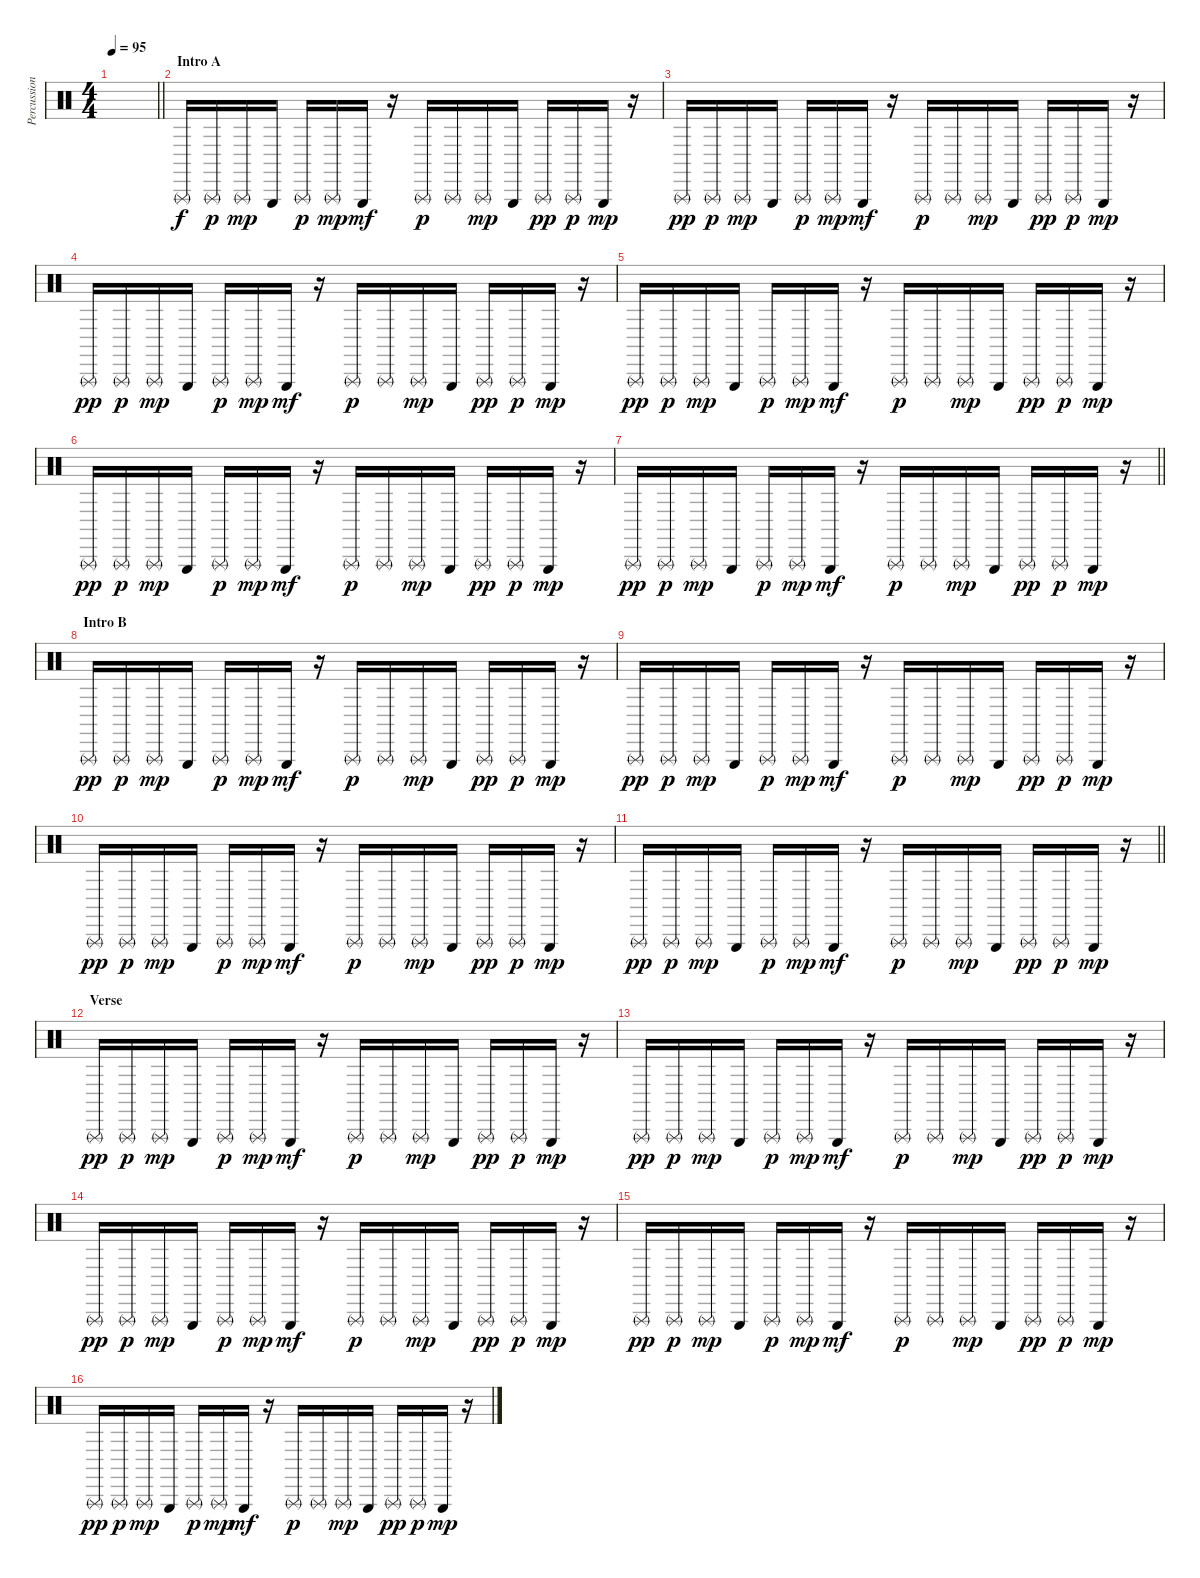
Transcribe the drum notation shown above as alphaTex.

\track ("Percussions" "Percussion") {instrument percussion}
\staff {score}
\articulation defaults
\ts (4 4)
\tempo 95
\clef neutral
\barLineRight lightlight
\ks c
|
\section ("" "Intro A")
"Triangle (rnute)".16 "Triangle (rnute)".16{dy p} "Triangle (rnute)".16{dy mp} "Triangle (hit)".16 "Triangle (rnute)".16{dy p} "Triangle (rnute)".16{dy mp} "Triangle (hit)".16{dy mf} r.16 "Triangle (rnute)".16{dy p} "Triangle (rnute)".16 "Triangle (rnute)".16{dy mp} "Triangle (hit)".16 "Triangle (rnute)".16{dy pp} "Triangle (rnute)".16{dy p} "Triangle (hit)".16{dy mp} r.16 |
"Triangle (rnute)".16{dy pp} "Triangle (rnute)".16{dy p} "Triangle (rnute)".16{dy mp} "Triangle (hit)".16 "Triangle (rnute)".16{dy p} "Triangle (rnute)".16{dy mp} "Triangle (hit)".16{dy mf} r.16 "Triangle (rnute)".16{dy p} "Triangle (rnute)".16 "Triangle (rnute)".16{dy mp} "Triangle (hit)".16 "Triangle (rnute)".16{dy pp} "Triangle (rnute)".16{dy p} "Triangle (hit)".16{dy mp} r.16 |
"Triangle (rnute)".16{dy pp} "Triangle (rnute)".16{dy p} "Triangle (rnute)".16{dy mp} "Triangle (hit)".16 "Triangle (rnute)".16{dy p} "Triangle (rnute)".16{dy mp} "Triangle (hit)".16{dy mf} r.16 "Triangle (rnute)".16{dy p} "Triangle (rnute)".16 "Triangle (rnute)".16{dy mp} "Triangle (hit)".16 "Triangle (rnute)".16{dy pp} "Triangle (rnute)".16{dy p} "Triangle (hit)".16{dy mp} r.16 |
"Triangle (rnute)".16{dy pp} "Triangle (rnute)".16{dy p} "Triangle (rnute)".16{dy mp} "Triangle (hit)".16 "Triangle (rnute)".16{dy p} "Triangle (rnute)".16{dy mp} "Triangle (hit)".16{dy mf} r.16 "Triangle (rnute)".16{dy p} "Triangle (rnute)".16 "Triangle (rnute)".16{dy mp} "Triangle (hit)".16 "Triangle (rnute)".16{dy pp} "Triangle (rnute)".16{dy p} "Triangle (hit)".16{dy mp} r.16 |
"Triangle (rnute)".16{dy pp} "Triangle (rnute)".16{dy p} "Triangle (rnute)".16{dy mp} "Triangle (hit)".16 "Triangle (rnute)".16{dy p} "Triangle (rnute)".16{dy mp} "Triangle (hit)".16{dy mf} r.16 "Triangle (rnute)".16{dy p} "Triangle (rnute)".16 "Triangle (rnute)".16{dy mp} "Triangle (hit)".16 "Triangle (rnute)".16{dy pp} "Triangle (rnute)".16{dy p} "Triangle (hit)".16{dy mp} r.16 |
\barLineRight lightlight "Triangle (rnute)".16{dy pp} "Triangle (rnute)".16{dy p} "Triangle (rnute)".16{dy mp} "Triangle (hit)".16 "Triangle (rnute)".16{dy p} "Triangle (rnute)".16{dy mp} "Triangle (hit)".16{dy mf}
r.16 "Triangle (rnute)".16{dy p} "Triangle (rnute)".16 "Triangle (rnute)".16{dy mp} "Triangle (hit)".16 "Triangle (rnute)".16{dy pp} "Triangle (rnute)".16{dy p} "Triangle (hit)".16{dy mp} r.16 |
\section ("" "Intro B")
"Triangle (rnute)".16{dy pp} "Triangle (rnute)".16{dy p} "Triangle (rnute)".16{dy mp} "Triangle (hit)".16 "Triangle (rnute)".16{dy p} "Triangle (rnute)".16{dy mp} "Triangle (hit)".16{dy mf} r.16 "Triangle (rnute)".16{dy p} "Triangle (rnute)".16 "Triangle (rnute)".16{dy mp} "Triangle (hit)".16 "Triangle (rnute)".16{dy pp} "Triangle (rnute)".16{dy p} "Triangle (hit)".16{dy mp} r.16 |
"Triangle (rnute)".16{dy pp} "Triangle (rnute)".16{dy p} "Triangle (rnute)".16{dy mp} "Triangle (hit)".16 "Triangle (rnute)".16{dy p} "Triangle (rnute)".16{dy mp} "Triangle (hit)".16{dy mf} r.16 "Triangle (rnute)".16{dy p} "Triangle (rnute)".16 "Triangle (rnute)".16{dy mp} "Triangle (hit)".16 "Triangle (rnute)".16{dy pp} "Triangle (rnute)".16{dy p} "Triangle (hit)".16{dy mp} r.16 |
"Triangle (rnute)".16{dy pp} "Triangle (rnute)".16{dy p} "Triangle (rnute)".16{dy mp} "Triangle (hit)".16 "Triangle (rnute)".16{dy p} "Triangle (rnute)".16{dy mp} "Triangle (hit)".16{dy mf} r.16 "Triangle (rnute)".16{dy p} "Triangle (rnute)".16 "Triangle (rnute)".16{dy mp} "Triangle (hit)".16 "Triangle (rnute)".16{dy pp} "Triangle (rnute)".16{dy p} "Triangle (hit)".16{dy mp} r.16 |
\barLineRight lightlight "Triangle (rnute)".16{dy pp} "Triangle (rnute)".16{dy p} "Triangle (rnute)".16{dy mp} "Triangle (hit)".16 "Triangle (rnute)".16{dy p} "Triangle (rnute)".16{dy mp} "Triangle (hit)".16{dy mf}
r.16 "Triangle (rnute)".16{dy p} "Triangle (rnute)".16 "Triangle (rnute)".16{dy mp} "Triangle (hit)".16 "Triangle (rnute)".16{dy pp} "Triangle (rnute)".16{dy p} "Triangle (hit)".16{dy mp} r.16 |
\section ("" "Verse")
"Triangle (rnute)".16{dy pp} "Triangle (rnute)".16{dy p} "Triangle (rnute)".16{dy mp} "Triangle (hit)".16 "Triangle (rnute)".16{dy p} "Triangle (rnute)".16{dy mp} "Triangle (hit)".16{dy mf} r.16 "Triangle (rnute)".16{dy p} "Triangle (rnute)".16 "Triangle (rnute)".16{dy mp} "Triangle (hit)".16 "Triangle (rnute)".16{dy pp} "Triangle (rnute)".16{dy p} "Triangle (hit)".16{dy mp} r.16 |
"Triangle (rnute)".16{dy pp} "Triangle (rnute)".16{dy p} "Triangle (rnute)".16{dy mp} "Triangle (hit)".16 "Triangle (rnute)".16{dy p} "Triangle (rnute)".16{dy mp} "Triangle (hit)".16{dy mf} r.16 "Triangle (rnute)".16{dy p} "Triangle (rnute)".16 "Triangle (rnute)".16{dy mp} "Triangle (hit)".16 "Triangle (rnute)".16{dy pp} "Triangle (rnute)".16{dy p} "Triangle (hit)".16{dy mp} r.16 |
"Triangle (rnute)".16{dy pp} "Triangle (rnute)".16{dy p} "Triangle (rnute)".16{dy mp} "Triangle (hit)".16 "Triangle (rnute)".16{dy p} "Triangle (rnute)".16{dy mp} "Triangle (hit)".16{dy mf} r.16 "Triangle (rnute)".16{dy p} "Triangle (rnute)".16 "Triangle (rnute)".16{dy mp} "Triangle (hit)".16 "Triangle (rnute)".16{dy pp} "Triangle (rnute)".16{dy p} "Triangle (hit)".16{dy mp} r.16 |
"Triangle (rnute)".16{dy pp} "Triangle (rnute)".16{dy p} "Triangle (rnute)".16{dy mp} "Triangle (hit)".16 "Triangle (rnute)".16{dy p} "Triangle (rnute)".16{dy mp} "Triangle (hit)".16{dy mf} r.16 "Triangle (rnute)".16{dy p} "Triangle (rnute)".16 "Triangle (rnute)".16{dy mp} "Triangle (hit)".16 "Triangle (rnute)".16{dy pp} "Triangle (rnute)".16{dy p} "Triangle (hit)".16{dy mp} r.16 |
"Triangle (rnute)".16{dy pp} "Triangle (rnute)".16{dy p} "Triangle (rnute)".16{dy mp} "Triangle (hit)".16 "Triangle (rnute)".16{dy p} "Triangle (rnute)".16{dy mp} "Triangle (hit)".16{dy mf} r.16 "Triangle (rnute)".16{dy p} "Triangle (rnute)".16 "Triangle (rnute)".16{dy mp} "Triangle (hit)".16 "Triangle (rnute)".16{dy pp} "Triangle (rnute)".16{dy p} "Triangle (hit)".16{dy mp} r.16
